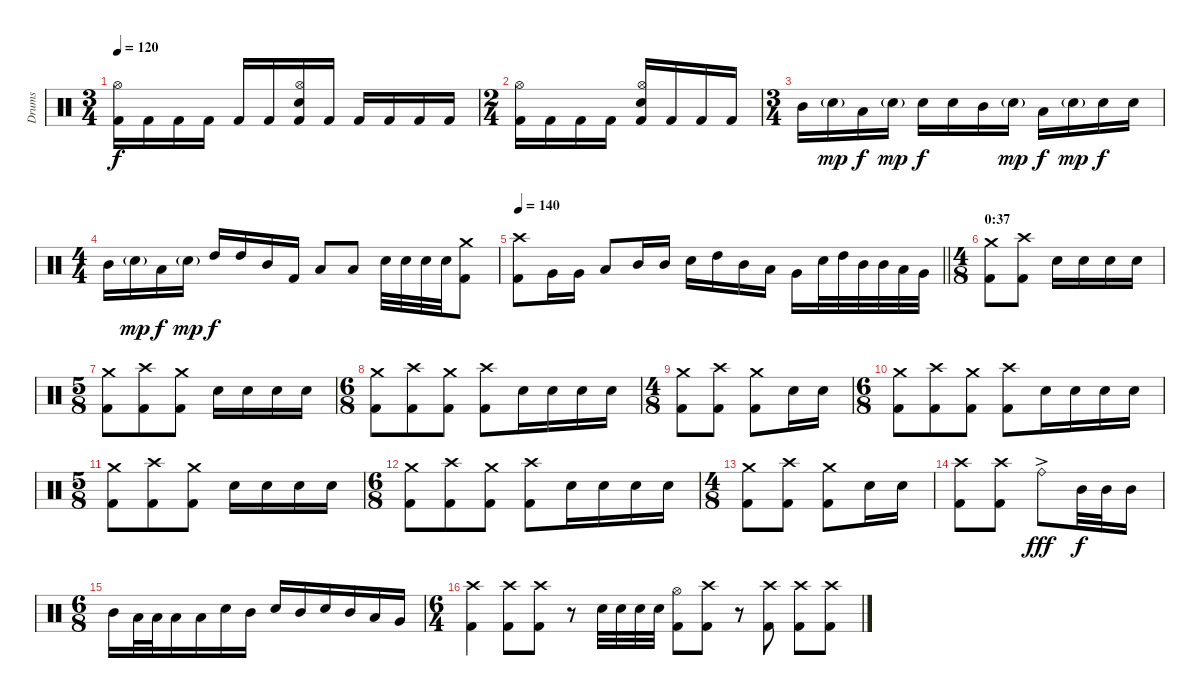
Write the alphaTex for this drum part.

\track ("Drums" "Drums") {instrument percussion}
\staff {score}
\articulation defaults
\ts (3 4)
\tempo 120
\clef neutral
\ks c
("Kick (hit) 2" "Hi-Hat (open)").16{dy f} "Kick (hit) 2".16 "Kick (hit) 2".16 "Kick (hit) 2".16 "Kick (hit) 2".16 "Kick (hit) 2".16 ("Kick (hit) 2" "Hi-Hat (open)" "Electric Snare (hit)").16 "Kick (hit) 2".16 "Kick (hit) 2".16 "Kick (hit) 2".16 "Kick (hit) 2".16 "Kick (hit) 2".16 |
\ts (2 4)
("Kick (hit) 2" "Hi-Hat (open)").16 "Kick (hit) 2".16 "Kick (hit) 2".16 "Kick (hit) 2".16 ("Kick (hit) 2" "Hi-Hat (open)" "Electric Snare (hit)").16 "Kick (hit) 2".16 "Kick (hit) 2".16 "Kick (hit) 2".16 |
\ts (3 4)
"Mid Tom (hit)".16 "Electric Snare (hit)"{g}.16{dy mp} "Low Tom (hit)".16{dy f} "Electric Snare (hit)"{g}.16{dy mp} "Electric Snare (hit)".16{dy f} "Electric Snare (hit)".16 "Mid Tom (hit)".16 "Electric Snare (hit)"{g}.16{dy mp} "Low Tom (hit)".16{dy f} "Electric Snare (hit)"{g}.16{dy mp} "Electric Snare (hit)".16{dy f} "Electric Snare (hit)".16 |
\ts (4 4)
"Mid Tom (hit)".16 "Electric Snare (hit)"{g}.16{dy mp} "Low Tom (hit)".16{dy f} "Electric Snare (hit)"{g}.16{dy mp} "High Tom (hit)".16{dy f} "High Tom (hit)".16 "Mid Tom (hit)".16 "Kick (hit) 2".16 "Low Tom (hit)".8 "Low Tom (hit)".8 "Electric Snare (hit)".32 "Electric Snare (hit)".32 "Electric Snare (hit)".32 "Electric Snare (hit)".32 ("Crash medium (hit)" "Kick (hit) 2").8 |
\tempo 140
\barLineRight lightlight
("Crash high (hit)" "Kick (hit) 2").8 "Very Low Tom (hit)".16 "Very Low Tom (hit)".16 "Low Tom (hit)".8 "Mid Tom (hit)".16 "Mid Tom (hit)".16 "Electric Snare (hit)".16 "High Tom (hit)".16 "Mid Tom (hit)".16 "Low Tom (hit)".16 "Very Low Tom (hit)".16 "Electric Snare (hit)".32 "High Tom (hit)".32 "Mid Tom (hit)".32 "Mid Tom (hit)".32 "Low Tom (hit)".32 "Very Low Tom (hit)".32 |
\ts (4 8)
\section ("" "0:37")
("Crash medium (hit)" "Kick (hit) 2").8 ("Crash high (hit)" "Kick (hit) 2").8 "Electric Snare (hit)".16 "Electric Snare (hit)".16 "Electric Snare (hit)".16 "Electric Snare (hit)".16 |
\ts (5 8)
("Crash medium (hit)" "Kick (hit) 2").8 ("Crash high (hit)" "Kick (hit) 2").8 ("Crash medium (hit)" "Kick (hit) 2").8 "Electric Snare (hit)".16 "Electric Snare (hit)".16 "Electric Snare (hit)".16 "Electric Snare (hit)".16 |
\ts (6 8)
("Crash medium (hit)" "Kick (hit) 2").8 ("Crash high (hit)" "Kick (hit) 2").8 ("Crash medium (hit)" "Kick (hit) 2").8 ("Crash high (hit)" "Kick (hit) 2").8 "Electric Snare (hit)".16 "Electric Snare (hit)".16 "Electric Snare (hit)".16 "Electric Snare (hit)".16 |
\ts (4 8)
("Crash medium (hit)" "Kick (hit) 2").8 ("Crash high (hit)" "Kick (hit) 2").8 ("Crash medium (hit)" "Kick (hit) 2").8 "Electric Snare (hit)".16 "Electric Snare (hit)".16 |
\ts (6 8)
("Crash medium (hit)" "Kick (hit) 2").8 ("Crash high (hit)" "Kick (hit) 2").8 ("Crash medium (hit)" "Kick (hit) 2").8 ("Crash high (hit)" "Kick (hit) 2").8 "Electric Snare (hit)".16 "Electric Snare (hit)".16 "Electric Snare (hit)".16 "Electric Snare (hit)".16 |
\ts (5 8)
("Crash medium (hit)" "Kick (hit) 2").8 ("Crash high (hit)" "Kick (hit) 2").8 ("Crash medium (hit)" "Kick (hit) 2").8 "Electric Snare (hit)".16 "Electric Snare (hit)".16 "Electric Snare (hit)".16 "Electric Snare (hit)".16 |
\ts (6 8)
("Crash medium (hit)" "Kick (hit) 2").8 ("Crash high (hit)" "Kick (hit) 2").8 ("Crash medium (hit)" "Kick (hit) 2").8 ("Crash high (hit)" "Kick (hit) 2").8 "Electric Snare (hit)".16 "Electric Snare (hit)".16 "Electric Snare (hit)".16 "Electric Snare (hit)".16 |
\ts (4 8)
("Crash medium (hit)" "Kick (hit) 2").8 ("Crash high (hit)" "Kick (hit) 2").8 ("Crash medium (hit)" "Kick (hit) 2").8 "Electric Snare (hit)".16 "Electric Snare (hit)".16 |
("Crash high (hit)" "Kick (hit) 2").8 ("Kick (hit) 2" "Crash high (hit)").8 "Ride (bell)"{ac}.8{dy fff} "Mid Tom (hit)".32{dy f} "Mid Tom (hit)".32 "Mid Tom (hit)".16 |
\ts (6 8)
"Mid Tom (hit)".16 "Low Tom (hit)".32 "Low Tom (hit)".32 "Low Tom (hit)".16 "Low Tom (hit)".16 "Electric Snare (hit)".16 "Mid Tom (hit)".16 "Electric Snare (hit)".16 "Mid Tom (hit)".16 "Electric Snare (hit)".16 "Mid Tom (hit)".16 "Low Tom (hit)".16 "Very Low Tom (hit)".16 |
\ts (6 4)
("Crash high (hit)" "Kick (hit) 2").4 ("Crash high (hit)" "Kick (hit) 2").8 ("Kick (hit) 2" "Crash high (hit)").8 r.8 "Electric Snare (hit)".32 "Electric Snare (hit)".32 "Electric Snare (hit)".32 "Electric Snare (hit)".32 ("Hi-Hat (open)" "Kick (hit) 2").8 ("Crash high (hit)" "Kick (hit) 2").8 r.8 ("Crash high (hit)" "Kick (hit) 2").8 ("Crash high (hit)" "Kick (hit) 2").8 ("Kick (hit) 2" "Crash high (hit)").8
